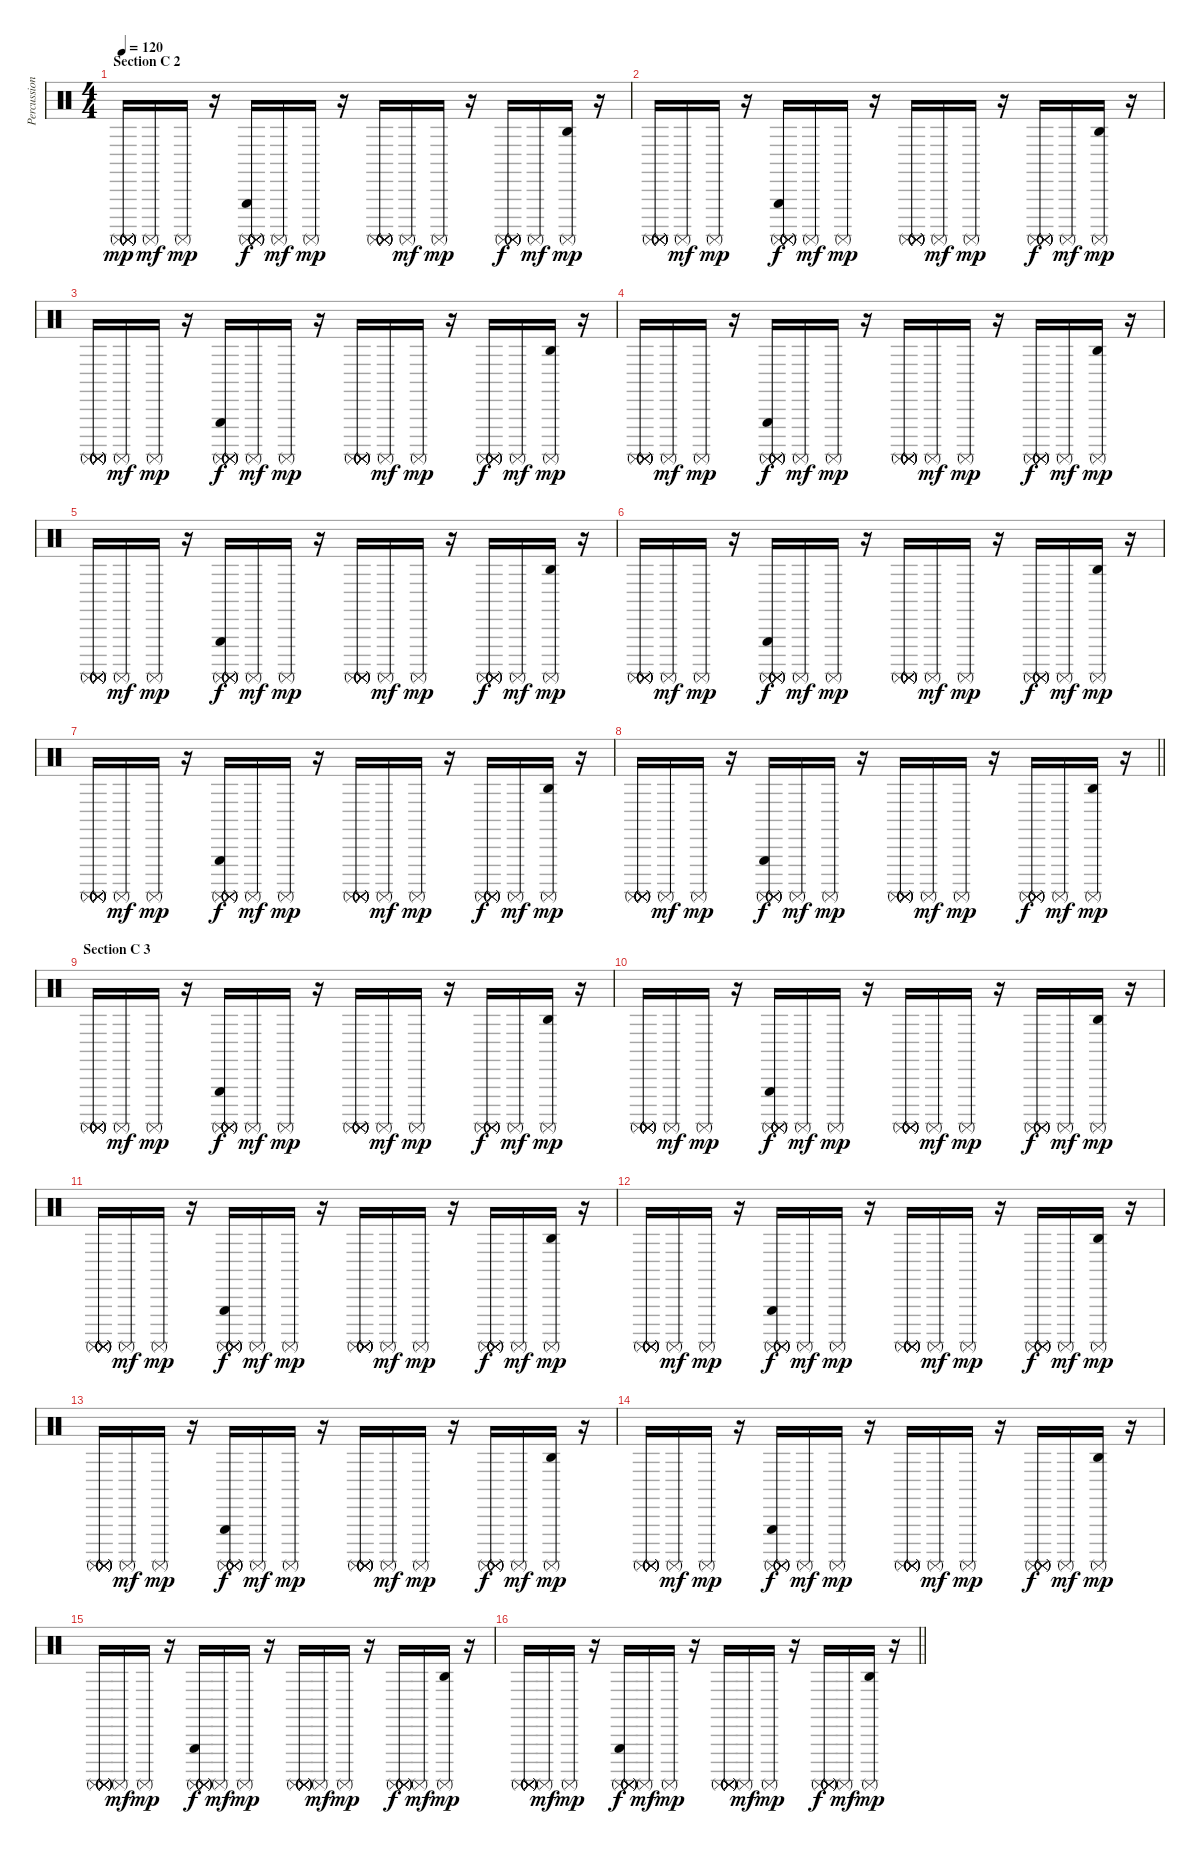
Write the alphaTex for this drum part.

\track ("Percussion" "Percussion") {instrument percussion}
\staff {score}
\articulation defaults
\ts (4 4)
\section ("" "Section C 2")
\tempo 120
\clef neutral
\ks c
("Surdo (mute)" "Surdo (mute)" "Surdo (mute)" "Surdo (mute)" "Surdo (mute)" "Surdo (mute)").16{dy mp} "Surdo (mute)".16{dy mf} "Surdo (mute)".16{dy mp} r.16 ("Triangle (hit)" "Surdo (mute)" "Surdo (mute)" "Surdo (mute)" "Surdo (mute)" "Surdo (mute)").16{dy f} "Surdo (mute)".16{dy mf} "Surdo (mute)".16{dy mp} r.16 ("Surdo (mute)" "Surdo (mute)" "Surdo (mute)" "Surdo (mute)" "Surdo (mute)" "Surdo (mute)").16 "Surdo (mute)".16{dy mf} "Surdo (mute)".16{dy mp} r.16 ("Surdo (mute)" "Surdo (mute)" "Surdo (mute)" "Surdo (mute)" "Surdo (mute)").16{dy f} "Surdo (mute)".16{dy mf} ("Agogo high (hit)" "Surdo (mute)").16{dy mp} r.16 |
("Surdo (mute)" "Surdo (mute)" "Surdo (mute)" "Surdo (mute)" "Surdo (mute)" "Surdo (mute)").16 "Surdo (mute)".16{dy mf} "Surdo (mute)".16{dy mp} r.16 ("Triangle (hit)" "Surdo (mute)" "Surdo (mute)" "Surdo (mute)" "Surdo (mute)" "Surdo (mute)").16{dy f} "Surdo (mute)".16{dy mf} "Surdo (mute)".16{dy mp} r.16 ("Surdo (mute)" "Surdo (mute)" "Surdo (mute)" "Surdo (mute)" "Surdo (mute)" "Surdo (mute)").16 "Surdo (mute)".16{dy mf} "Surdo (mute)".16{dy mp} r.16 ("Surdo (mute)" "Surdo (mute)" "Surdo (mute)" "Surdo (mute)" "Surdo (mute)").16{dy f} "Surdo (mute)".16{dy mf} ("Agogo high (hit)" "Surdo (mute)").16{dy mp} r.16 |
("Surdo (mute)" "Surdo (mute)" "Surdo (mute)" "Surdo (mute)" "Surdo (mute)" "Surdo (mute)").16 "Surdo (mute)".16{dy mf} "Surdo (mute)".16{dy mp} r.16 ("Triangle (hit)" "Surdo (mute)" "Surdo (mute)" "Surdo (mute)" "Surdo (mute)" "Surdo (mute)").16{dy f} "Surdo (mute)".16{dy mf} "Surdo (mute)".16{dy mp} r.16 ("Surdo (mute)" "Surdo (mute)" "Surdo (mute)" "Surdo (mute)" "Surdo (mute)" "Surdo (mute)").16 "Surdo (mute)".16{dy mf} "Surdo (mute)".16{dy mp} r.16 ("Surdo (mute)" "Surdo (mute)" "Surdo (mute)" "Surdo (mute)" "Surdo (mute)").16{dy f} "Surdo (mute)".16{dy mf} ("Agogo high (hit)" "Surdo (mute)").16{dy mp} r.16 |
("Surdo (mute)" "Surdo (mute)" "Surdo (mute)" "Surdo (mute)" "Surdo (mute)" "Surdo (mute)").16 "Surdo (mute)".16{dy mf} "Surdo (mute)".16{dy mp} r.16 ("Triangle (hit)" "Surdo (mute)" "Surdo (mute)" "Surdo (mute)" "Surdo (mute)" "Surdo (mute)").16{dy f} "Surdo (mute)".16{dy mf} "Surdo (mute)".16{dy mp} r.16 ("Surdo (mute)" "Surdo (mute)" "Surdo (mute)" "Surdo (mute)" "Surdo (mute)" "Surdo (mute)").16 "Surdo (mute)".16{dy mf} "Surdo (mute)".16{dy mp} r.16 ("Surdo (mute)" "Surdo (mute)" "Surdo (mute)" "Surdo (mute)" "Surdo (mute)").16{dy f} "Surdo (mute)".16{dy mf} ("Agogo high (hit)" "Surdo (mute)").16{dy mp} r.16 |
("Surdo (mute)" "Surdo (mute)" "Surdo (mute)" "Surdo (mute)" "Surdo (mute)" "Surdo (mute)").16 "Surdo (mute)".16{dy mf} "Surdo (mute)".16{dy mp} r.16 ("Triangle (hit)" "Surdo (mute)" "Surdo (mute)" "Surdo (mute)" "Surdo (mute)" "Surdo (mute)").16{dy f} "Surdo (mute)".16{dy mf} "Surdo (mute)".16{dy mp} r.16 ("Surdo (mute)" "Surdo (mute)" "Surdo (mute)" "Surdo (mute)" "Surdo (mute)" "Surdo (mute)").16 "Surdo (mute)".16{dy mf} "Surdo (mute)".16{dy mp} r.16 ("Surdo (mute)" "Surdo (mute)" "Surdo (mute)" "Surdo (mute)" "Surdo (mute)").16{dy f} "Surdo (mute)".16{dy mf} ("Agogo high (hit)" "Surdo (mute)").16{dy mp} r.16 |
("Surdo (mute)" "Surdo (mute)" "Surdo (mute)" "Surdo (mute)" "Surdo (mute)" "Surdo (mute)").16 "Surdo (mute)".16{dy mf} "Surdo (mute)".16{dy mp} r.16 ("Triangle (hit)" "Surdo (mute)" "Surdo (mute)" "Surdo (mute)" "Surdo (mute)" "Surdo (mute)").16{dy f} "Surdo (mute)".16{dy mf} "Surdo (mute)".16{dy mp} r.16 ("Surdo (mute)" "Surdo (mute)" "Surdo (mute)" "Surdo (mute)" "Surdo (mute)" "Surdo (mute)").16 "Surdo (mute)".16{dy mf} "Surdo (mute)".16{dy mp} r.16 ("Surdo (mute)" "Surdo (mute)" "Surdo (mute)" "Surdo (mute)" "Surdo (mute)").16{dy f} "Surdo (mute)".16{dy mf} ("Agogo high (hit)" "Surdo (mute)").16{dy mp} r.16 |
("Surdo (mute)" "Surdo (mute)" "Surdo (mute)" "Surdo (mute)" "Surdo (mute)" "Surdo (mute)").16 "Surdo (mute)".16{dy mf} "Surdo (mute)".16{dy mp} r.16 ("Triangle (hit)" "Surdo (mute)" "Surdo (mute)" "Surdo (mute)" "Surdo (mute)" "Surdo (mute)").16{dy f} "Surdo (mute)".16{dy mf} "Surdo (mute)".16{dy mp} r.16 ("Surdo (mute)" "Surdo (mute)" "Surdo (mute)" "Surdo (mute)" "Surdo (mute)" "Surdo (mute)").16 "Surdo (mute)".16{dy mf} "Surdo (mute)".16{dy mp} r.16 ("Surdo (mute)" "Surdo (mute)" "Surdo (mute)" "Surdo (mute)" "Surdo (mute)").16{dy f} "Surdo (mute)".16{dy mf} ("Agogo high (hit)" "Surdo (mute)").16{dy mp} r.16 |
\barLineRight lightlight
("Surdo (mute)" "Surdo (mute)" "Surdo (mute)" "Surdo (mute)" "Surdo (mute)" "Surdo (mute)").16 "Surdo (mute)".16{dy mf} "Surdo (mute)".16{dy mp} r.16 ("Triangle (hit)" "Surdo (mute)" "Surdo (mute)" "Surdo (mute)" "Surdo (mute)" "Surdo (mute)").16{dy f} "Surdo (mute)".16{dy mf} "Surdo (mute)".16{dy mp} r.16 ("Surdo (mute)" "Surdo (mute)" "Surdo (mute)" "Surdo (mute)" "Surdo (mute)" "Surdo (mute)").16 "Surdo (mute)".16{dy mf} "Surdo (mute)".16{dy mp} r.16 ("Surdo (mute)" "Surdo (mute)" "Surdo (mute)" "Surdo (mute)" "Surdo (mute)").16{dy f} "Surdo (mute)".16{dy mf} ("Agogo high (hit)" "Surdo (mute)").16{dy mp} r.16 |
\section ("" "Section C 3")
("Surdo (mute)" "Surdo (mute)" "Surdo (mute)" "Surdo (mute)" "Surdo (mute)" "Surdo (mute)").16 "Surdo (mute)".16{dy mf} "Surdo (mute)".16{dy mp} r.16 ("Triangle (hit)" "Surdo (mute)" "Surdo (mute)" "Surdo (mute)" "Surdo (mute)" "Surdo (mute)").16{dy f} "Surdo (mute)".16{dy mf} "Surdo (mute)".16{dy mp} r.16 ("Surdo (mute)" "Surdo (mute)" "Surdo (mute)" "Surdo (mute)" "Surdo (mute)" "Surdo (mute)").16 "Surdo (mute)".16{dy mf} "Surdo (mute)".16{dy mp} r.16 ("Surdo (mute)" "Surdo (mute)" "Surdo (mute)" "Surdo (mute)" "Surdo (mute)").16{dy f} "Surdo (mute)".16{dy mf} ("Agogo high (hit)" "Surdo (mute)").16{dy mp} r.16 |
("Surdo (mute)" "Surdo (mute)" "Surdo (mute)" "Surdo (mute)" "Surdo (mute)" "Surdo (mute)").16 "Surdo (mute)".16{dy mf} "Surdo (mute)".16{dy mp} r.16 ("Triangle (hit)" "Surdo (mute)" "Surdo (mute)" "Surdo (mute)" "Surdo (mute)" "Surdo (mute)").16{dy f} "Surdo (mute)".16{dy mf} "Surdo (mute)".16{dy mp} r.16 ("Surdo (mute)" "Surdo (mute)" "Surdo (mute)" "Surdo (mute)" "Surdo (mute)" "Surdo (mute)").16 "Surdo (mute)".16{dy mf} "Surdo (mute)".16{dy mp} r.16 ("Surdo (mute)" "Surdo (mute)" "Surdo (mute)" "Surdo (mute)" "Surdo (mute)").16{dy f} "Surdo (mute)".16{dy mf} ("Agogo high (hit)" "Surdo (mute)").16{dy mp} r.16 |
("Surdo (mute)" "Surdo (mute)" "Surdo (mute)" "Surdo (mute)" "Surdo (mute)" "Surdo (mute)").16 "Surdo (mute)".16{dy mf} "Surdo (mute)".16{dy mp} r.16 ("Triangle (hit)" "Surdo (mute)" "Surdo (mute)" "Surdo (mute)" "Surdo (mute)" "Surdo (mute)").16{dy f} "Surdo (mute)".16{dy mf} "Surdo (mute)".16{dy mp} r.16 ("Surdo (mute)" "Surdo (mute)" "Surdo (mute)" "Surdo (mute)" "Surdo (mute)" "Surdo (mute)").16 "Surdo (mute)".16{dy mf} "Surdo (mute)".16{dy mp} r.16 ("Surdo (mute)" "Surdo (mute)" "Surdo (mute)" "Surdo (mute)" "Surdo (mute)").16{dy f} "Surdo (mute)".16{dy mf} ("Agogo high (hit)" "Surdo (mute)").16{dy mp} r.16 |
("Surdo (mute)" "Surdo (mute)" "Surdo (mute)" "Surdo (mute)" "Surdo (mute)" "Surdo (mute)").16 "Surdo (mute)".16{dy mf} "Surdo (mute)".16{dy mp} r.16 ("Triangle (hit)" "Surdo (mute)" "Surdo (mute)" "Surdo (mute)" "Surdo (mute)" "Surdo (mute)").16{dy f} "Surdo (mute)".16{dy mf} "Surdo (mute)".16{dy mp} r.16 ("Surdo (mute)" "Surdo (mute)" "Surdo (mute)" "Surdo (mute)" "Surdo (mute)" "Surdo (mute)").16 "Surdo (mute)".16{dy mf} "Surdo (mute)".16{dy mp} r.16 ("Surdo (mute)" "Surdo (mute)" "Surdo (mute)" "Surdo (mute)" "Surdo (mute)").16{dy f} "Surdo (mute)".16{dy mf} ("Agogo high (hit)" "Surdo (mute)").16{dy mp} r.16 |
("Surdo (mute)" "Surdo (mute)" "Surdo (mute)" "Surdo (mute)" "Surdo (mute)" "Surdo (mute)").16 "Surdo (mute)".16{dy mf} "Surdo (mute)".16{dy mp} r.16 ("Triangle (hit)" "Surdo (mute)" "Surdo (mute)" "Surdo (mute)" "Surdo (mute)" "Surdo (mute)").16{dy f} "Surdo (mute)".16{dy mf} "Surdo (mute)".16{dy mp} r.16 ("Surdo (mute)" "Surdo (mute)" "Surdo (mute)" "Surdo (mute)" "Surdo (mute)" "Surdo (mute)").16 "Surdo (mute)".16{dy mf} "Surdo (mute)".16{dy mp} r.16 ("Surdo (mute)" "Surdo (mute)" "Surdo (mute)" "Surdo (mute)" "Surdo (mute)").16{dy f} "Surdo (mute)".16{dy mf} ("Agogo high (hit)" "Surdo (mute)").16{dy mp} r.16 |
("Surdo (mute)" "Surdo (mute)" "Surdo (mute)" "Surdo (mute)" "Surdo (mute)" "Surdo (mute)").16 "Surdo (mute)".16{dy mf} "Surdo (mute)".16{dy mp} r.16 ("Triangle (hit)" "Surdo (mute)" "Surdo (mute)" "Surdo (mute)" "Surdo (mute)" "Surdo (mute)").16{dy f} "Surdo (mute)".16{dy mf} "Surdo (mute)".16{dy mp} r.16 ("Surdo (mute)" "Surdo (mute)" "Surdo (mute)" "Surdo (mute)" "Surdo (mute)" "Surdo (mute)").16 "Surdo (mute)".16{dy mf} "Surdo (mute)".16{dy mp} r.16 ("Surdo (mute)" "Surdo (mute)" "Surdo (mute)" "Surdo (mute)" "Surdo (mute)").16{dy f} "Surdo (mute)".16{dy mf} ("Agogo high (hit)" "Surdo (mute)").16{dy mp} r.16 |
("Surdo (mute)" "Surdo (mute)" "Surdo (mute)" "Surdo (mute)" "Surdo (mute)" "Surdo (mute)").16 "Surdo (mute)".16{dy mf} "Surdo (mute)".16{dy mp} r.16 ("Triangle (hit)" "Surdo (mute)" "Surdo (mute)" "Surdo (mute)" "Surdo (mute)" "Surdo (mute)").16{dy f} "Surdo (mute)".16{dy mf} "Surdo (mute)".16{dy mp} r.16 ("Surdo (mute)" "Surdo (mute)" "Surdo (mute)" "Surdo (mute)" "Surdo (mute)" "Surdo (mute)").16 "Surdo (mute)".16{dy mf} "Surdo (mute)".16{dy mp} r.16 ("Surdo (mute)" "Surdo (mute)" "Surdo (mute)" "Surdo (mute)" "Surdo (mute)").16{dy f} "Surdo (mute)".16{dy mf} ("Agogo high (hit)" "Surdo (mute)").16{dy mp} r.16 |
\barLineRight lightlight
("Surdo (mute)" "Surdo (mute)" "Surdo (mute)" "Surdo (mute)" "Surdo (mute)" "Surdo (mute)").16 "Surdo (mute)".16{dy mf} "Surdo (mute)".16{dy mp} r.16 ("Triangle (hit)" "Surdo (mute)" "Surdo (mute)" "Surdo (mute)" "Surdo (mute)" "Surdo (mute)").16{dy f} "Surdo (mute)".16{dy mf} "Surdo (mute)".16{dy mp} r.16 ("Surdo (mute)" "Surdo (mute)" "Surdo (mute)" "Surdo (mute)" "Surdo (mute)" "Surdo (mute)").16 "Surdo (mute)".16{dy mf} "Surdo (mute)".16{dy mp} r.16 ("Surdo (mute)" "Surdo (mute)" "Surdo (mute)" "Surdo (mute)" "Surdo (mute)").16{dy f} "Surdo (mute)".16{dy mf} ("Agogo high (hit)" "Surdo (mute)").16{dy mp} r.16
